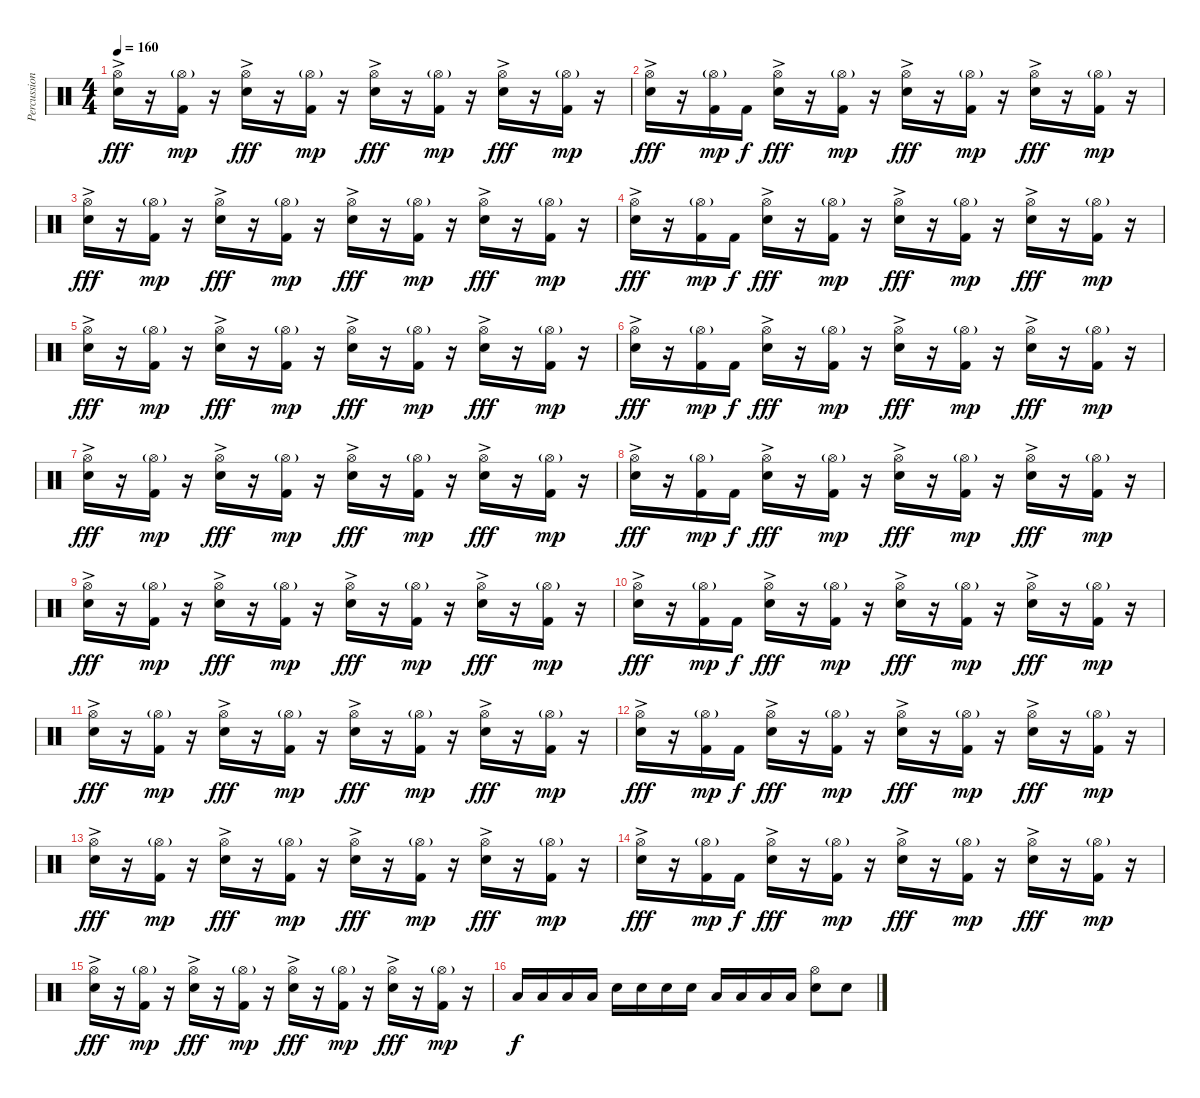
\track ("Percussioni" "Percussion") {instrument percussion}
\staff {score}
\articulation defaults
\ts (4 4)
\tempo 160
\clef neutral
\ks c
("Hi-Hat (open)"{ac} "Electric Snare (hit)").16{dy fff} r.16 ("Hi-Hat (open)"{g} "Kick (hit) 2").16{dy mp} r.16 ("Hi-Hat (open)"{ac} "Electric Snare (hit)").16{dy fff} r.16 ("Hi-Hat (open)"{g} "Kick (hit) 2").16{dy mp} r.16 ("Hi-Hat (open)"{ac} "Electric Snare (hit)").16{dy fff} r.16 ("Hi-Hat (open)"{g} "Kick (hit) 2").16{dy mp} r.16 ("Hi-Hat (open)"{ac} "Electric Snare (hit)").16{dy fff} r.16 ("Hi-Hat (open)"{g} "Kick (hit) 2").16{dy mp} r.16 |
("Hi-Hat (open)"{ac} "Electric Snare (hit)").16{dy fff} r.16 ("Hi-Hat (open)"{g} "Kick (hit) 2").16{dy mp} "Kick (hit) 2".16{dy f} ("Hi-Hat (open)"{ac} "Electric Snare (hit)").16{dy fff} r.16 ("Hi-Hat (open)"{g} "Kick (hit) 2").16{dy mp} r.16 ("Hi-Hat (open)"{ac} "Electric Snare (hit)").16{dy fff} r.16 ("Hi-Hat (open)"{g} "Kick (hit) 2").16{dy mp} r.16 ("Hi-Hat (open)"{ac} "Electric Snare (hit)").16{dy fff} r.16 ("Hi-Hat (open)"{g} "Kick (hit) 2").16{dy mp} r.16 |
("Hi-Hat (open)"{ac} "Electric Snare (hit)").16{dy fff} r.16 ("Hi-Hat (open)"{g} "Kick (hit) 2").16{dy mp} r.16 ("Hi-Hat (open)"{ac} "Electric Snare (hit)").16{dy fff} r.16 ("Hi-Hat (open)"{g} "Kick (hit) 2").16{dy mp} r.16 ("Hi-Hat (open)"{ac} "Electric Snare (hit)").16{dy fff} r.16 ("Hi-Hat (open)"{g} "Kick (hit) 2").16{dy mp} r.16 ("Hi-Hat (open)"{ac} "Electric Snare (hit)").16{dy fff} r.16 ("Hi-Hat (open)"{g} "Kick (hit) 2").16{dy mp} r.16 |
("Hi-Hat (open)"{ac} "Electric Snare (hit)").16{dy fff} r.16 ("Hi-Hat (open)"{g} "Kick (hit) 2").16{dy mp} "Kick (hit) 2".16{dy f} ("Hi-Hat (open)"{ac} "Electric Snare (hit)").16{dy fff} r.16 ("Hi-Hat (open)"{g} "Kick (hit) 2").16{dy mp} r.16 ("Hi-Hat (open)"{ac} "Electric Snare (hit)").16{dy fff} r.16 ("Hi-Hat (open)"{g} "Kick (hit) 2").16{dy mp} r.16 ("Hi-Hat (open)"{ac} "Electric Snare (hit)").16{dy fff} r.16 ("Hi-Hat (open)"{g} "Kick (hit) 2").16{dy mp} r.16 |
("Hi-Hat (open)"{ac} "Electric Snare (hit)").16{dy fff} r.16 ("Hi-Hat (open)"{g} "Kick (hit) 2").16{dy mp} r.16 ("Hi-Hat (open)"{ac} "Electric Snare (hit)").16{dy fff} r.16 ("Hi-Hat (open)"{g} "Kick (hit) 2").16{dy mp} r.16 ("Hi-Hat (open)"{ac} "Electric Snare (hit)").16{dy fff} r.16 ("Hi-Hat (open)"{g} "Kick (hit) 2").16{dy mp} r.16 ("Hi-Hat (open)"{ac} "Electric Snare (hit)").16{dy fff} r.16 ("Hi-Hat (open)"{g} "Kick (hit) 2").16{dy mp} r.16 |
("Hi-Hat (open)"{ac} "Electric Snare (hit)").16{dy fff} r.16 ("Hi-Hat (open)"{g} "Kick (hit) 2").16{dy mp} "Kick (hit) 2".16{dy f} ("Hi-Hat (open)"{ac} "Electric Snare (hit)").16{dy fff} r.16 ("Hi-Hat (open)"{g} "Kick (hit) 2").16{dy mp} r.16 ("Hi-Hat (open)"{ac} "Electric Snare (hit)").16{dy fff} r.16 ("Hi-Hat (open)"{g} "Kick (hit) 2").16{dy mp} r.16 ("Hi-Hat (open)"{ac} "Electric Snare (hit)").16{dy fff} r.16 ("Hi-Hat (open)"{g} "Kick (hit) 2").16{dy mp} r.16 |
("Hi-Hat (open)"{ac} "Electric Snare (hit)").16{dy fff} r.16 ("Hi-Hat (open)"{g} "Kick (hit) 2").16{dy mp} r.16 ("Hi-Hat (open)"{ac} "Electric Snare (hit)").16{dy fff} r.16 ("Hi-Hat (open)"{g} "Kick (hit) 2").16{dy mp} r.16 ("Hi-Hat (open)"{ac} "Electric Snare (hit)").16{dy fff} r.16 ("Hi-Hat (open)"{g} "Kick (hit) 2").16{dy mp} r.16 ("Hi-Hat (open)"{ac} "Electric Snare (hit)").16{dy fff} r.16 ("Hi-Hat (open)"{g} "Kick (hit) 2").16{dy mp} r.16 |
("Hi-Hat (open)"{ac} "Electric Snare (hit)").16{dy fff} r.16 ("Hi-Hat (open)"{g} "Kick (hit) 2").16{dy mp} "Kick (hit) 2".16{dy f} ("Hi-Hat (open)"{ac} "Electric Snare (hit)").16{dy fff} r.16 ("Hi-Hat (open)"{g} "Kick (hit) 2").16{dy mp} r.16 ("Hi-Hat (open)"{ac} "Electric Snare (hit)").16{dy fff} r.16 ("Hi-Hat (open)"{g} "Kick (hit) 2").16{dy mp} r.16 ("Hi-Hat (open)"{ac} "Electric Snare (hit)").16{dy fff} r.16 ("Hi-Hat (open)"{g} "Kick (hit) 2").16{dy mp} r.16 |
("Hi-Hat (open)"{ac} "Electric Snare (hit)").16{dy fff} r.16 ("Hi-Hat (open)"{g} "Kick (hit) 2").16{dy mp} r.16 ("Hi-Hat (open)"{ac} "Electric Snare (hit)").16{dy fff} r.16 ("Hi-Hat (open)"{g} "Kick (hit) 2").16{dy mp} r.16 ("Hi-Hat (open)"{ac} "Electric Snare (hit)").16{dy fff} r.16 ("Hi-Hat (open)"{g} "Kick (hit) 2").16{dy mp} r.16 ("Hi-Hat (open)"{ac} "Electric Snare (hit)").16{dy fff} r.16 ("Hi-Hat (open)"{g} "Kick (hit) 2").16{dy mp} r.16 |
("Hi-Hat (open)"{ac} "Electric Snare (hit)").16{dy fff} r.16 ("Hi-Hat (open)"{g} "Kick (hit) 2").16{dy mp} "Kick (hit) 2".16{dy f} ("Hi-Hat (open)"{ac} "Electric Snare (hit)").16{dy fff} r.16 ("Hi-Hat (open)"{g} "Kick (hit) 2").16{dy mp} r.16 ("Hi-Hat (open)"{ac} "Electric Snare (hit)").16{dy fff} r.16 ("Hi-Hat (open)"{g} "Kick (hit) 2").16{dy mp} r.16 ("Hi-Hat (open)"{ac} "Electric Snare (hit)").16{dy fff} r.16 ("Hi-Hat (open)"{g} "Kick (hit) 2").16{dy mp} r.16 |
("Hi-Hat (open)"{ac} "Electric Snare (hit)").16{dy fff} r.16 ("Hi-Hat (open)"{g} "Kick (hit) 2").16{dy mp} r.16 ("Hi-Hat (open)"{ac} "Electric Snare (hit)").16{dy fff} r.16 ("Hi-Hat (open)"{g} "Kick (hit) 2").16{dy mp} r.16 ("Hi-Hat (open)"{ac} "Electric Snare (hit)").16{dy fff} r.16 ("Hi-Hat (open)"{g} "Kick (hit) 2").16{dy mp} r.16 ("Hi-Hat (open)"{ac} "Electric Snare (hit)").16{dy fff} r.16 ("Hi-Hat (open)"{g} "Kick (hit) 2").16{dy mp} r.16 |
("Hi-Hat (open)"{ac} "Electric Snare (hit)").16{dy fff} r.16 ("Hi-Hat (open)"{g} "Kick (hit) 2").16{dy mp} "Kick (hit) 2".16{dy f} ("Hi-Hat (open)"{ac} "Electric Snare (hit)").16{dy fff} r.16 ("Hi-Hat (open)"{g} "Kick (hit) 2").16{dy mp} r.16 ("Hi-Hat (open)"{ac} "Electric Snare (hit)").16{dy fff} r.16 ("Hi-Hat (open)"{g} "Kick (hit) 2").16{dy mp} r.16 ("Hi-Hat (open)"{ac} "Electric Snare (hit)").16{dy fff} r.16 ("Hi-Hat (open)"{g} "Kick (hit) 2").16{dy mp} r.16 |
("Hi-Hat (open)"{ac} "Electric Snare (hit)").16{dy fff} r.16 ("Hi-Hat (open)"{g} "Kick (hit) 2").16{dy mp} r.16 ("Hi-Hat (open)"{ac} "Electric Snare (hit)").16{dy fff} r.16 ("Hi-Hat (open)"{g} "Kick (hit) 2").16{dy mp} r.16 ("Hi-Hat (open)"{ac} "Electric Snare (hit)").16{dy fff} r.16 ("Hi-Hat (open)"{g} "Kick (hit) 2").16{dy mp} r.16 ("Hi-Hat (open)"{ac} "Electric Snare (hit)").16{dy fff} r.16 ("Hi-Hat (open)"{g} "Kick (hit) 2").16{dy mp} r.16 |
("Hi-Hat (open)"{ac} "Electric Snare (hit)").16{dy fff} r.16 ("Hi-Hat (open)"{g} "Kick (hit) 2").16{dy mp} "Kick (hit) 2".16{dy f} ("Hi-Hat (open)"{ac} "Electric Snare (hit)").16{dy fff} r.16 ("Hi-Hat (open)"{g} "Kick (hit) 2").16{dy mp} r.16 ("Hi-Hat (open)"{ac} "Electric Snare (hit)").16{dy fff} r.16 ("Hi-Hat (open)"{g} "Kick (hit) 2").16{dy mp} r.16 ("Hi-Hat (open)"{ac} "Electric Snare (hit)").16{dy fff} r.16 ("Hi-Hat (open)"{g} "Kick (hit) 2").16{dy mp} r.16 |
("Hi-Hat (open)"{ac} "Electric Snare (hit)").16{dy fff} r.16 ("Hi-Hat (open)"{g} "Kick (hit) 2").16{dy mp} r.16 ("Hi-Hat (open)"{ac} "Electric Snare (hit)").16{dy fff} r.16 ("Hi-Hat (open)"{g} "Kick (hit) 2").16{dy mp} r.16 ("Hi-Hat (open)"{ac} "Electric Snare (hit)").16{dy fff} r.16 ("Hi-Hat (open)"{g} "Kick (hit) 2").16{dy mp} r.16 ("Hi-Hat (open)"{ac} "Electric Snare (hit)").16{dy fff} r.16 ("Hi-Hat (open)"{g} "Kick (hit) 2").16{dy mp} r.16 |
"Low Tom (hit)".16{dy f} "Low Tom (hit)".16 "Low Tom (hit)".16 "Low Tom (hit)".16 "Electric Snare (hit)".16 "Electric Snare (hit)".16 "Electric Snare (hit)".16 "Electric Snare (hit)".16 "Low Tom (hit)".16 "Low Tom (hit)".16 "Low Tom (hit)".16 "Low Tom (hit)".16 ("Hi-Hat (open)" "Electric Snare (hit)").8 "Electric Snare (hit)".8
